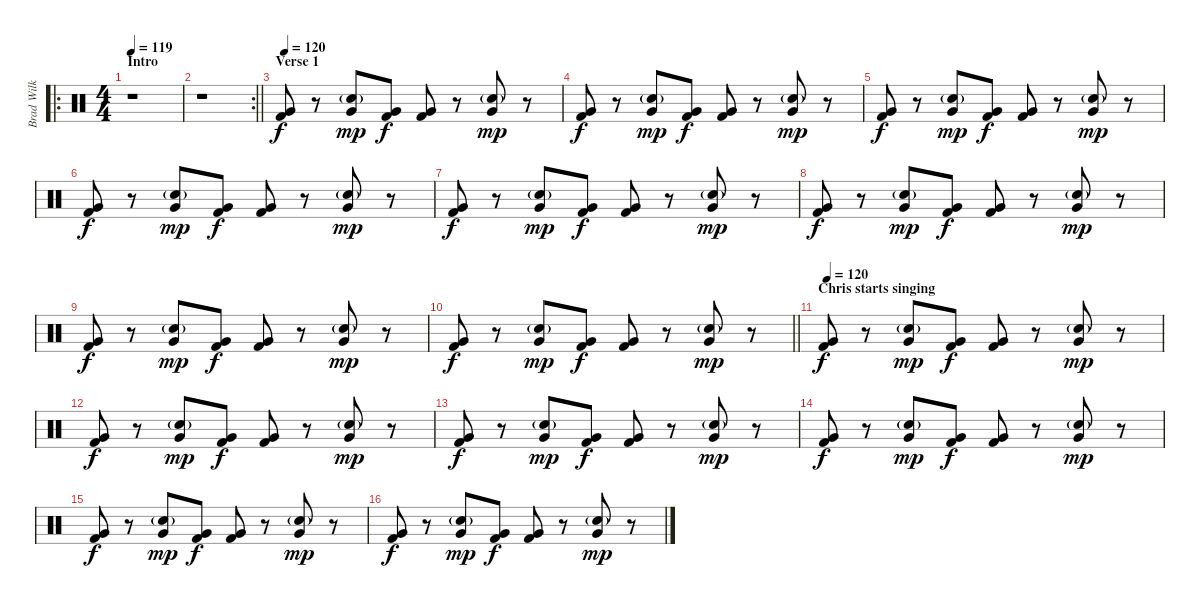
\track ("Brad Wilk" "Brad Wilk") {instrument percussion}
\staff {score}
\articulation defaults
\ro
\ts (4 4)
\section ("" "Intro")
\tempo 119
\tempo 90
\tempo 119
\clef neutral
\ks c
r.1{dy f} |
\rc 2
\barLineRight lightlight
r.1 |
\section ("" "Verse 1")
\tempo 119
\tempo 120
("Very Low Tom (hit)" "Kick (hit) 2").8 r.8 ("Snare (hit) 2"{g} "Very Low Tom (hit)").8{dy mp} ("Very Low Tom (hit)" "Kick (hit) 2").8{dy f} ("Very Low Tom (hit)" "Kick (hit) 2").8 r.8 ("Snare (hit) 2"{g} "Very Low Tom (hit)").8{dy mp} r.8 |
("Very Low Tom (hit)" "Kick (hit) 2").8{dy f} r.8 ("Snare (hit) 2"{g} "Very Low Tom (hit)").8{dy mp} ("Very Low Tom (hit)" "Kick (hit) 2").8{dy f} ("Very Low Tom (hit)" "Kick (hit) 2").8 r.8 ("Snare (hit) 2"{g} "Very Low Tom (hit)").8{dy mp} r.8 |
("Very Low Tom (hit)" "Kick (hit) 2").8{dy f} r.8 ("Snare (hit) 2"{g} "Very Low Tom (hit)").8{dy mp} ("Very Low Tom (hit)" "Kick (hit) 2").8{dy f} ("Very Low Tom (hit)" "Kick (hit) 2").8 r.8 ("Snare (hit) 2"{g} "Very Low Tom (hit)").8{dy mp} r.8 |
("Very Low Tom (hit)" "Kick (hit) 2").8{dy f} r.8 ("Snare (hit) 2"{g} "Very Low Tom (hit)").8{dy mp} ("Very Low Tom (hit)" "Kick (hit) 2").8{dy f} ("Very Low Tom (hit)" "Kick (hit) 2").8 r.8 ("Snare (hit) 2"{g} "Very Low Tom (hit)").8{dy mp} r.8 |
("Very Low Tom (hit)" "Kick (hit) 2").8{dy f} r.8 ("Snare (hit) 2"{g} "Very Low Tom (hit)").8{dy mp} ("Very Low Tom (hit)" "Kick (hit) 2").8{dy f} ("Very Low Tom (hit)" "Kick (hit) 2").8 r.8 ("Snare (hit) 2"{g} "Very Low Tom (hit)").8{dy mp} r.8 |
("Very Low Tom (hit)" "Kick (hit) 2").8{dy f} r.8 ("Snare (hit) 2"{g} "Very Low Tom (hit)").8{dy mp} ("Very Low Tom (hit)" "Kick (hit) 2").8{dy f} ("Very Low Tom (hit)" "Kick (hit) 2").8 r.8 ("Snare (hit) 2"{g} "Very Low Tom (hit)").8{dy mp} r.8 |
("Very Low Tom (hit)" "Kick (hit) 2").8{dy f} r.8 ("Snare (hit) 2"{g} "Very Low Tom (hit)").8{dy mp} ("Very Low Tom (hit)" "Kick (hit) 2").8{dy f} ("Very Low Tom (hit)" "Kick (hit) 2").8 r.8 ("Snare (hit) 2"{g} "Very Low Tom (hit)").8{dy mp} r.8 |
\barLineRight lightlight
("Very Low Tom (hit)" "Kick (hit) 2").8{dy f} r.8 ("Snare (hit) 2"{g} "Very Low Tom (hit)").8{dy mp} ("Very Low Tom (hit)" "Kick (hit) 2").8{dy f} ("Very Low Tom (hit)" "Kick (hit) 2").8 r.8 ("Snare (hit) 2"{g} "Very Low Tom (hit)").8{dy mp} r.8 |
\section ("" "Chris starts singing")
\tempo 120
("Very Low Tom (hit)" "Kick (hit) 2").8{dy f} r.8 ("Snare (hit) 2"{g} "Very Low Tom (hit)").8{dy mp} ("Very Low Tom (hit)" "Kick (hit) 2").8{dy f} ("Very Low Tom (hit)" "Kick (hit) 2").8 r.8 ("Snare (hit) 2"{g} "Very Low Tom (hit)").8{dy mp} r.8 |
("Very Low Tom (hit)" "Kick (hit) 2").8{dy f} r.8 ("Snare (hit) 2"{g} "Very Low Tom (hit)").8{dy mp} ("Very Low Tom (hit)" "Kick (hit) 2").8{dy f} ("Very Low Tom (hit)" "Kick (hit) 2").8 r.8 ("Snare (hit) 2"{g} "Very Low Tom (hit)").8{dy mp} r.8 |
("Very Low Tom (hit)" "Kick (hit) 2").8{dy f} r.8 ("Snare (hit) 2"{g} "Very Low Tom (hit)").8{dy mp} ("Very Low Tom (hit)" "Kick (hit) 2").8{dy f} ("Very Low Tom (hit)" "Kick (hit) 2").8 r.8 ("Snare (hit) 2"{g} "Very Low Tom (hit)").8{dy mp} r.8 |
("Very Low Tom (hit)" "Kick (hit) 2").8{dy f} r.8 ("Snare (hit) 2"{g} "Very Low Tom (hit)").8{dy mp} ("Very Low Tom (hit)" "Kick (hit) 2").8{dy f} ("Very Low Tom (hit)" "Kick (hit) 2").8 r.8 ("Snare (hit) 2"{g} "Very Low Tom (hit)").8{dy mp} r.8 |
("Very Low Tom (hit)" "Kick (hit) 2").8{dy f} r.8 ("Snare (hit) 2"{g} "Very Low Tom (hit)").8{dy mp} ("Very Low Tom (hit)" "Kick (hit) 2").8{dy f} ("Very Low Tom (hit)" "Kick (hit) 2").8 r.8 ("Snare (hit) 2"{g} "Very Low Tom (hit)").8{dy mp} r.8 |
("Very Low Tom (hit)" "Kick (hit) 2").8{dy f} r.8 ("Snare (hit) 2"{g} "Very Low Tom (hit)").8{dy mp} ("Very Low Tom (hit)" "Kick (hit) 2").8{dy f} ("Very Low Tom (hit)" "Kick (hit) 2").8 r.8 ("Snare (hit) 2"{g} "Very Low Tom (hit)").8{dy mp} r.8
